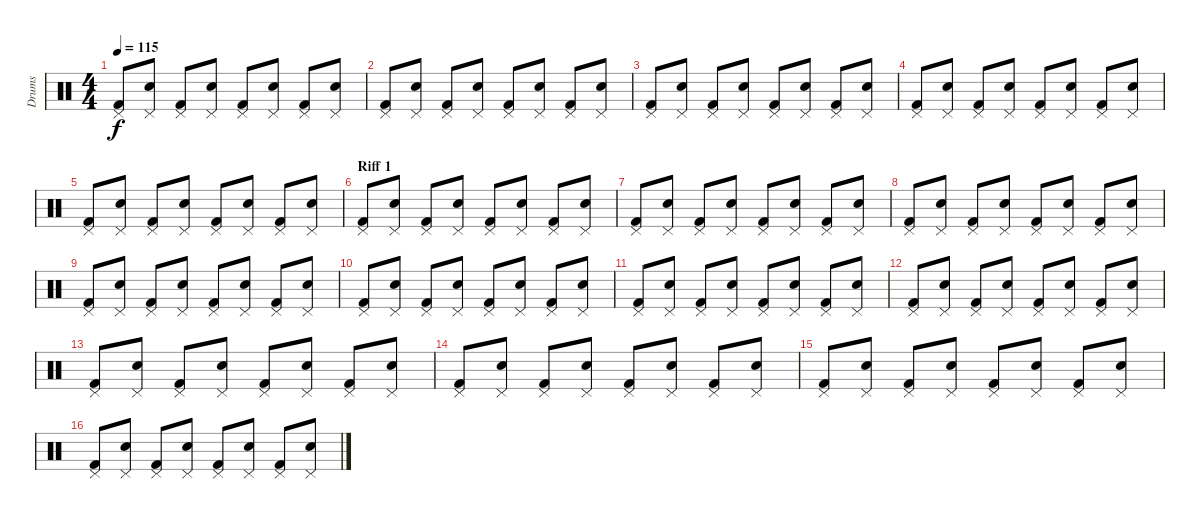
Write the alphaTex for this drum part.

\track ("Drums" "Drums") {instrument percussion}
\staff {score}
\articulation defaults
\ts (4 4)
\tempo 115
\clef neutral
\ks c
("Kick (hit) 2" "Pedal Hi-Hat (hit)").8{dy f} ("Snare (hit) 2" "Pedal Hi-Hat (hit)").8 ("Kick (hit) 2" "Pedal Hi-Hat (hit)").8 ("Snare (hit) 2" "Pedal Hi-Hat (hit)").8 ("Kick (hit) 2" "Pedal Hi-Hat (hit)").8 ("Snare (hit) 2" "Pedal Hi-Hat (hit)").8 ("Kick (hit) 2" "Pedal Hi-Hat (hit)").8 ("Snare (hit) 2" "Pedal Hi-Hat (hit)").8 |
("Kick (hit) 2" "Pedal Hi-Hat (hit)").8 ("Snare (hit) 2" "Pedal Hi-Hat (hit)").8 ("Kick (hit) 2" "Pedal Hi-Hat (hit)").8 ("Snare (hit) 2" "Pedal Hi-Hat (hit)").8 ("Kick (hit) 2" "Pedal Hi-Hat (hit)").8 ("Snare (hit) 2" "Pedal Hi-Hat (hit)").8 ("Kick (hit) 2" "Pedal Hi-Hat (hit)").8 ("Snare (hit) 2" "Pedal Hi-Hat (hit)").8 |
("Kick (hit) 2" "Pedal Hi-Hat (hit)").8 ("Snare (hit) 2" "Pedal Hi-Hat (hit)").8 ("Kick (hit) 2" "Pedal Hi-Hat (hit)").8 ("Snare (hit) 2" "Pedal Hi-Hat (hit)").8 ("Kick (hit) 2" "Pedal Hi-Hat (hit)").8 ("Snare (hit) 2" "Pedal Hi-Hat (hit)").8 ("Kick (hit) 2" "Pedal Hi-Hat (hit)").8 ("Snare (hit) 2" "Pedal Hi-Hat (hit)").8 |
("Kick (hit) 2" "Pedal Hi-Hat (hit)").8 ("Snare (hit) 2" "Pedal Hi-Hat (hit)").8 ("Kick (hit) 2" "Pedal Hi-Hat (hit)").8 ("Snare (hit) 2" "Pedal Hi-Hat (hit)").8 ("Kick (hit) 2" "Pedal Hi-Hat (hit)").8 ("Snare (hit) 2" "Pedal Hi-Hat (hit)").8 ("Kick (hit) 2" "Pedal Hi-Hat (hit)").8 ("Snare (hit) 2" "Pedal Hi-Hat (hit)").8 |
("Kick (hit) 2" "Pedal Hi-Hat (hit)").8 ("Snare (hit) 2" "Pedal Hi-Hat (hit)").8 ("Kick (hit) 2" "Pedal Hi-Hat (hit)").8 ("Snare (hit) 2" "Pedal Hi-Hat (hit)").8 ("Kick (hit) 2" "Pedal Hi-Hat (hit)").8 ("Snare (hit) 2" "Pedal Hi-Hat (hit)").8 ("Kick (hit) 2" "Pedal Hi-Hat (hit)").8 ("Snare (hit) 2" "Pedal Hi-Hat (hit)").8 |
\section ("" "Riff 1")
("Kick (hit) 2" "Pedal Hi-Hat (hit)").8 ("Snare (hit) 2" "Pedal Hi-Hat (hit)").8 ("Kick (hit) 2" "Pedal Hi-Hat (hit)").8 ("Snare (hit) 2" "Pedal Hi-Hat (hit)").8 ("Kick (hit) 2" "Pedal Hi-Hat (hit)").8 ("Snare (hit) 2" "Pedal Hi-Hat (hit)").8 ("Kick (hit) 2" "Pedal Hi-Hat (hit)").8 ("Snare (hit) 2" "Pedal Hi-Hat (hit)").8 |
("Kick (hit) 2" "Pedal Hi-Hat (hit)").8 ("Snare (hit) 2" "Pedal Hi-Hat (hit)").8 ("Kick (hit) 2" "Pedal Hi-Hat (hit)").8 ("Snare (hit) 2" "Pedal Hi-Hat (hit)").8 ("Kick (hit) 2" "Pedal Hi-Hat (hit)").8 ("Snare (hit) 2" "Pedal Hi-Hat (hit)").8 ("Kick (hit) 2" "Pedal Hi-Hat (hit)").8 ("Snare (hit) 2" "Pedal Hi-Hat (hit)").8 |
("Kick (hit) 2" "Pedal Hi-Hat (hit)").8 ("Snare (hit) 2" "Pedal Hi-Hat (hit)").8 ("Kick (hit) 2" "Pedal Hi-Hat (hit)").8 ("Snare (hit) 2" "Pedal Hi-Hat (hit)").8 ("Kick (hit) 2" "Pedal Hi-Hat (hit)").8 ("Snare (hit) 2" "Pedal Hi-Hat (hit)").8 ("Kick (hit) 2" "Pedal Hi-Hat (hit)").8 ("Snare (hit) 2" "Pedal Hi-Hat (hit)").8 |
("Kick (hit) 2" "Pedal Hi-Hat (hit)").8 ("Snare (hit) 2" "Pedal Hi-Hat (hit)").8 ("Kick (hit) 2" "Pedal Hi-Hat (hit)").8 ("Snare (hit) 2" "Pedal Hi-Hat (hit)").8 ("Kick (hit) 2" "Pedal Hi-Hat (hit)").8 ("Snare (hit) 2" "Pedal Hi-Hat (hit)").8 ("Kick (hit) 2" "Pedal Hi-Hat (hit)").8 ("Snare (hit) 2" "Pedal Hi-Hat (hit)").8 |
("Kick (hit) 2" "Pedal Hi-Hat (hit)").8 ("Snare (hit) 2" "Pedal Hi-Hat (hit)").8 ("Kick (hit) 2" "Pedal Hi-Hat (hit)").8 ("Snare (hit) 2" "Pedal Hi-Hat (hit)").8 ("Kick (hit) 2" "Pedal Hi-Hat (hit)").8 ("Snare (hit) 2" "Pedal Hi-Hat (hit)").8 ("Kick (hit) 2" "Pedal Hi-Hat (hit)").8 ("Snare (hit) 2" "Pedal Hi-Hat (hit)").8 |
("Kick (hit) 2" "Pedal Hi-Hat (hit)").8 ("Snare (hit) 2" "Pedal Hi-Hat (hit)").8 ("Kick (hit) 2" "Pedal Hi-Hat (hit)").8 ("Snare (hit) 2" "Pedal Hi-Hat (hit)").8 ("Kick (hit) 2" "Pedal Hi-Hat (hit)").8 ("Snare (hit) 2" "Pedal Hi-Hat (hit)").8 ("Kick (hit) 2" "Pedal Hi-Hat (hit)").8 ("Snare (hit) 2" "Pedal Hi-Hat (hit)").8 |
("Kick (hit) 2" "Pedal Hi-Hat (hit)").8 ("Snare (hit) 2" "Pedal Hi-Hat (hit)").8 ("Kick (hit) 2" "Pedal Hi-Hat (hit)").8 ("Snare (hit) 2" "Pedal Hi-Hat (hit)").8 ("Kick (hit) 2" "Pedal Hi-Hat (hit)").8 ("Snare (hit) 2" "Pedal Hi-Hat (hit)").8 ("Kick (hit) 2" "Pedal Hi-Hat (hit)").8 ("Snare (hit) 2" "Pedal Hi-Hat (hit)").8 |
("Kick (hit) 2" "Pedal Hi-Hat (hit)").8 ("Snare (hit) 2" "Pedal Hi-Hat (hit)").8 ("Kick (hit) 2" "Pedal Hi-Hat (hit)").8 ("Snare (hit) 2" "Pedal Hi-Hat (hit)").8 ("Kick (hit) 2" "Pedal Hi-Hat (hit)").8 ("Snare (hit) 2" "Pedal Hi-Hat (hit)").8 ("Kick (hit) 2" "Pedal Hi-Hat (hit)").8 ("Snare (hit) 2" "Pedal Hi-Hat (hit)").8 |
("Kick (hit) 2" "Pedal Hi-Hat (hit)").8 ("Snare (hit) 2" "Pedal Hi-Hat (hit)").8 ("Kick (hit) 2" "Pedal Hi-Hat (hit)").8 ("Snare (hit) 2" "Pedal Hi-Hat (hit)").8 ("Kick (hit) 2" "Pedal Hi-Hat (hit)").8 ("Snare (hit) 2" "Pedal Hi-Hat (hit)").8 ("Kick (hit) 2" "Pedal Hi-Hat (hit)").8 ("Snare (hit) 2" "Pedal Hi-Hat (hit)").8 |
("Kick (hit) 2" "Pedal Hi-Hat (hit)").8 ("Snare (hit) 2" "Pedal Hi-Hat (hit)").8 ("Kick (hit) 2" "Pedal Hi-Hat (hit)").8 ("Snare (hit) 2" "Pedal Hi-Hat (hit)").8 ("Kick (hit) 2" "Pedal Hi-Hat (hit)").8 ("Snare (hit) 2" "Pedal Hi-Hat (hit)").8 ("Kick (hit) 2" "Pedal Hi-Hat (hit)").8 ("Snare (hit) 2" "Pedal Hi-Hat (hit)").8 |
("Kick (hit) 2" "Pedal Hi-Hat (hit)").8 ("Snare (hit) 2" "Pedal Hi-Hat (hit)").8 ("Kick (hit) 2" "Pedal Hi-Hat (hit)").8 ("Snare (hit) 2" "Pedal Hi-Hat (hit)").8 ("Kick (hit) 2" "Pedal Hi-Hat (hit)").8 ("Snare (hit) 2" "Pedal Hi-Hat (hit)").8 ("Kick (hit) 2" "Pedal Hi-Hat (hit)").8 ("Snare (hit) 2" "Pedal Hi-Hat (hit)").8
